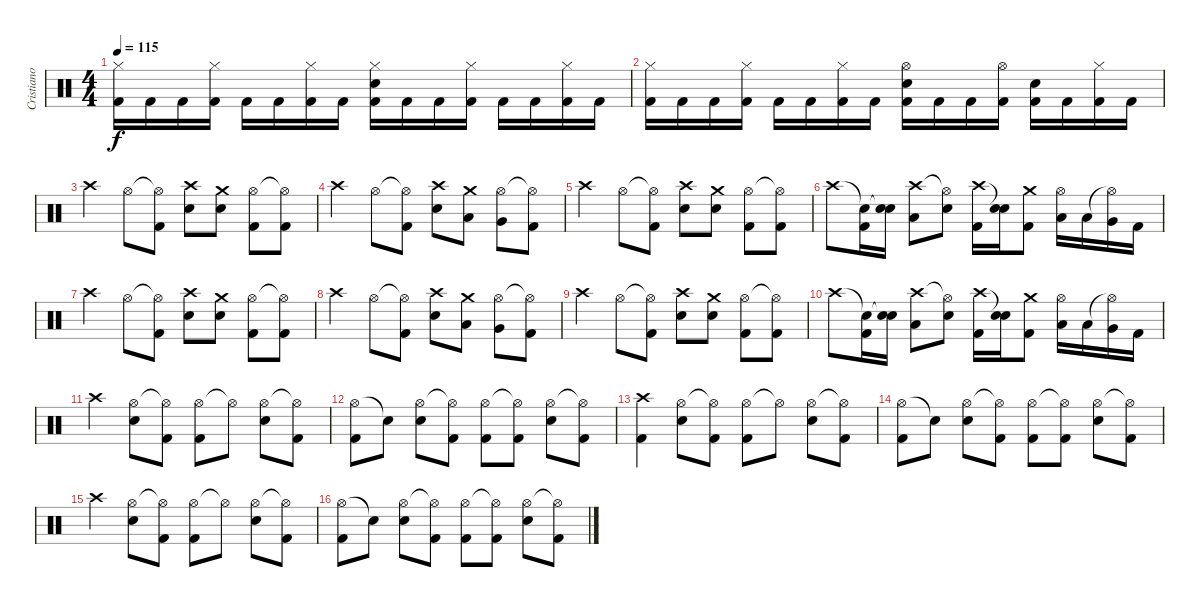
\track ("Cristiano Mozzati" "Cristiano ") {instrument percussion}
\staff {score}
\articulation defaults
\ts (4 4)
\tempo 115
\clef neutral
\ks c
("Hi-Hat (closed)" "Kick (hit) 2").16{dy f} "Kick (hit) 2".16 "Kick (hit) 2".16 ("Hi-Hat (closed)" "Kick (hit) 2").16 "Kick (hit) 2".16 "Kick (hit) 2".16 ("Hi-Hat (closed)" "Kick (hit) 2").16 "Kick (hit) 2".16 ("Hi-Hat (closed)" "Electric Snare (hit)" "Kick (hit) 2").16 "Kick (hit) 2".16 "Kick (hit) 2".16 ("Hi-Hat (closed)" "Kick (hit) 2").16 "Kick (hit) 2".16 "Kick (hit) 2".16 ("Hi-Hat (closed)" "Kick (hit) 2").16 "Kick (hit) 2".16 |
("Hi-Hat (closed)" "Kick (hit) 2").16 "Kick (hit) 2".16 "Kick (hit) 2".16 ("Hi-Hat (closed)" "Kick (hit) 2").16 "Kick (hit) 2".16 "Kick (hit) 2".16 ("Hi-Hat (closed)" "Kick (hit) 2").16 "Kick (hit) 2".16 ("Hi-Hat (open)" "Electric Snare (hit)" "Kick (hit) 2").16 "Kick (hit) 2".16 "Kick (hit) 2".16 ("Hi-Hat (open)" "Kick (hit) 2").16 ("Electric Snare (hit)" "Kick (hit) 2").16 "Kick (hit) 2".16 ("Hi-Hat (closed)" "Kick (hit) 2").16 "Kick (hit) 2".16 |
"Crash high (hit)".4 "Hi-Hat (open)".8 ("Hi-Hat (open)"{t} "Kick (hit) 2").8 ("Crash high (hit)" "Electric Snare (hit)").8 ("Crash medium (hit)" "Electric Snare (hit)").8 ("Hi-Hat (open)" "Kick (hit) 2").8 ("Hi-Hat (open)"{t} "Kick (hit) 2").8 |
"Crash high (hit)".4 "Hi-Hat (open)".8 ("Hi-Hat (open)"{t} "Kick (hit) 2").8 ("Crash high (hit)" "Electric Snare (hit)").8 ("Crash medium (hit)" "Low Tom (hit)").8 ("Hi-Hat (open)" "Very Low Tom (hit)").8 ("Hi-Hat (open)"{t} "Kick (hit) 2").8 |
"Crash high (hit)".4 "Hi-Hat (open)".8 ("Hi-Hat (open)"{t} "Kick (hit) 2").8 ("Crash high (hit)" "Electric Snare (hit)").8 ("Crash medium (hit)" "Electric Snare (hit)").8 ("Hi-Hat (open)" "Kick (hit) 2").8 ("Hi-Hat (open)"{t} "Kick (hit) 2").8 |
"Crash high (hit)".8 ("Snare (hit)"{t} "Kick (hit) 2").16 ("Snare (hit)"{t} "Electric Snare (hit)").16 ("Crash high (hit)" "Low Tom (hit)").8 ("Hi-Hat (open)"{t} "Electric Snare (hit)").8 ("Crash high (hit)" "Kick (hit) 2").16 ("Snare (hit)"{t} "Electric Snare (hit)").16 ("Crash medium (hit)" "Kick (hit) 2").8 ("Hi-Hat (open)" "Low Tom (hit)").16 "Low Tom (hit)".16 ("Hi-Hat (open)"{t} "Very Low Tom (hit)").16 "Kick (hit) 2".16 |
"Crash high (hit)".4 "Hi-Hat (open)".8 ("Hi-Hat (open)"{t} "Kick (hit) 2").8 ("Crash high (hit)" "Electric Snare (hit)").8 ("Crash medium (hit)" "Electric Snare (hit)").8 ("Hi-Hat (open)" "Kick (hit) 2").8 ("Hi-Hat (open)"{t} "Kick (hit) 2").8 |
"Crash high (hit)".4 "Hi-Hat (open)".8 ("Hi-Hat (open)"{t} "Kick (hit) 2").8 ("Crash high (hit)" "Electric Snare (hit)").8 ("Crash medium (hit)" "Low Tom (hit)").8 ("Hi-Hat (open)" "Very Low Tom (hit)").8 ("Hi-Hat (open)"{t} "Kick (hit) 2").8 |
"Crash high (hit)".4 "Hi-Hat (open)".8 ("Hi-Hat (open)"{t} "Kick (hit) 2").8 ("Crash high (hit)" "Electric Snare (hit)").8 ("Crash medium (hit)" "Electric Snare (hit)").8 ("Hi-Hat (open)" "Kick (hit) 2").8 ("Hi-Hat (open)"{t} "Kick (hit) 2").8 |
"Crash high (hit)".8 ("Snare (hit)"{t} "Kick (hit) 2").16 ("Snare (hit)"{t} "Electric Snare (hit)").16 ("Crash high (hit)" "Low Tom (hit)").8 ("Hi-Hat (open)"{t} "Electric Snare (hit)").8 ("Crash high (hit)" "Kick (hit) 2").16 ("Snare (hit)"{t} "Electric Snare (hit)").16 ("Crash medium (hit)" "Kick (hit) 2").8 ("Hi-Hat (open)" "Low Tom (hit)").16 "Low Tom (hit)".16 ("Hi-Hat (open)"{t} "Very Low Tom (hit)").16 "Kick (hit) 2".16 |
"Crash high (hit)".4 ("Hi-Hat (open)" "Electric Snare (hit)").8 ("Hi-Hat (open)"{t} "Kick (hit) 2").8 ("Hi-Hat (open)" "Kick (hit) 2").8 "Hi-Hat (open)"{t}.8 ("Hi-Hat (open)" "Electric Snare (hit)").8 ("Hi-Hat (open)"{t} "Kick (hit) 2").8 |
("Hi-Hat (open)" "Kick (hit) 2").8 "Snare (hit)"{t}.8 ("Hi-Hat (open)" "Electric Snare (hit)").8 ("Hi-Hat (open)"{t} "Kick (hit) 2").8 ("Hi-Hat (open)" "Kick (hit) 2").8 ("Hi-Hat (open)"{t} "Kick (hit) 2").8 ("Hi-Hat (open)" "Electric Snare (hit)").8 ("Hi-Hat (open)"{t} "Kick (hit) 2").8 |
("Crash high (hit)" "Kick (hit) 2").4 ("Hi-Hat (open)" "Electric Snare (hit)").8 ("Hi-Hat (open)"{t} "Kick (hit) 2").8 ("Hi-Hat (open)" "Kick (hit) 2").8 "Hi-Hat (open)"{t}.8 ("Hi-Hat (open)" "Electric Snare (hit)").8 ("Hi-Hat (open)"{t} "Kick (hit) 2").8 |
("Hi-Hat (open)" "Kick (hit) 2").8 "Snare (hit)"{t}.8 ("Hi-Hat (open)" "Electric Snare (hit)").8 ("Hi-Hat (open)"{t} "Kick (hit) 2").8 ("Hi-Hat (open)" "Kick (hit) 2").8 ("Hi-Hat (open)"{t} "Kick (hit) 2").8 ("Hi-Hat (open)" "Electric Snare (hit)").8 ("Hi-Hat (open)"{t} "Kick (hit) 2").8 |
"Crash high (hit)".4 ("Hi-Hat (open)" "Electric Snare (hit)").8 ("Hi-Hat (open)"{t} "Kick (hit) 2").8 ("Hi-Hat (open)" "Kick (hit) 2").8 "Hi-Hat (open)"{t}.8 ("Hi-Hat (open)" "Electric Snare (hit)").8 ("Hi-Hat (open)"{t} "Kick (hit) 2").8 |
("Hi-Hat (open)" "Kick (hit) 2").8 "Snare (hit)"{t}.8 ("Hi-Hat (open)" "Electric Snare (hit)").8 ("Hi-Hat (open)"{t} "Kick (hit) 2").8 ("Hi-Hat (open)" "Kick (hit) 2").8 ("Hi-Hat (open)"{t} "Kick (hit) 2").8 ("Hi-Hat (open)" "Electric Snare (hit)").8 ("Hi-Hat (open)"{t} "Kick (hit) 2").8
